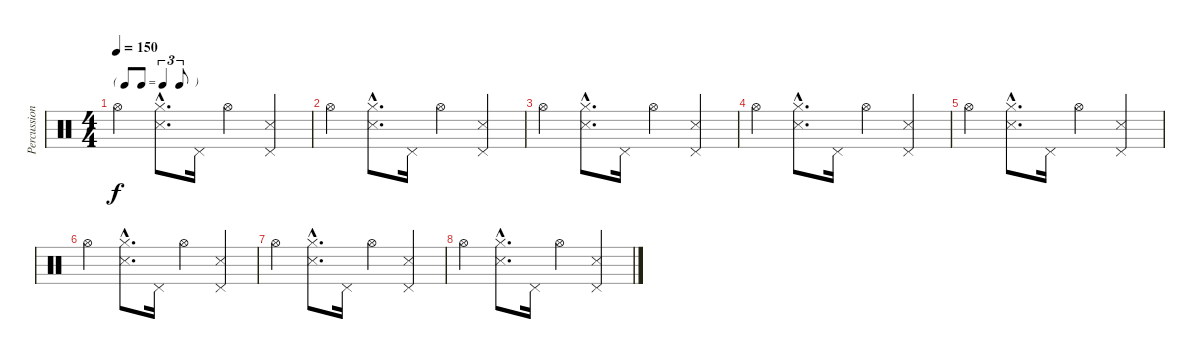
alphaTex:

\track ("Percussion" "Percussion") {instrument percussion}
\staff {score}
\articulation defaults
\ts (4 4)
\tf triplet8th
\tempo 150
\clef neutral
\ks c "Hi-Hat (open)".4{dy f}
("Snare (side stick) 3"{hac} "Hi-Hat (closed)"{hac}).8{d} "Pedal Hi-Hat (hit)".16 "Hi-Hat (open)".4 ("Pedal Hi-Hat (hit)" "Snare (side stick) 3").4 |
"Hi-Hat (open)".4 ("Snare (side stick) 3"{hac} "Hi-Hat (closed)"{hac}).8{d} "Pedal Hi-Hat (hit)".16 "Hi-Hat (open)".4 ("Pedal Hi-Hat (hit)" "Snare (side stick) 3").4 |
"Hi-Hat (open)".4 ("Snare (side stick) 3"{hac} "Hi-Hat (closed)"{hac}).8{d} "Pedal Hi-Hat (hit)".16 "Hi-Hat (open)".4 ("Pedal Hi-Hat (hit)" "Snare (side stick) 3").4 |
"Hi-Hat (open)".4 ("Snare (side stick) 3"{hac} "Hi-Hat (closed)"{hac}).8{d} "Pedal Hi-Hat (hit)".16 "Hi-Hat (open)".4 ("Pedal Hi-Hat (hit)" "Snare (side stick) 3").4 |
"Hi-Hat (open)".4 ("Snare (side stick) 3"{hac} "Hi-Hat (closed)"{hac}).8{d} "Pedal Hi-Hat (hit)".16 "Hi-Hat (open)".4 ("Pedal Hi-Hat (hit)" "Snare (side stick) 3").4 |
"Hi-Hat (open)".4 ("Snare (side stick) 3"{hac} "Hi-Hat (closed)"{hac}).8{d} "Pedal Hi-Hat (hit)".16 "Hi-Hat (open)".4 ("Pedal Hi-Hat (hit)" "Snare (side stick) 3").4 |
"Hi-Hat (open)".4 ("Snare (side stick) 3"{hac} "Hi-Hat (closed)"{hac}).8{d} "Pedal Hi-Hat (hit)".16 "Hi-Hat (open)".4 ("Pedal Hi-Hat (hit)" "Snare (side stick) 3").4 |
"Hi-Hat (open)".4 ("Snare (side stick) 3"{hac} "Hi-Hat (closed)"{hac}).8{d} "Pedal Hi-Hat (hit)".16 "Hi-Hat (open)".4 ("Pedal Hi-Hat (hit)" "Snare (side stick) 3").4
